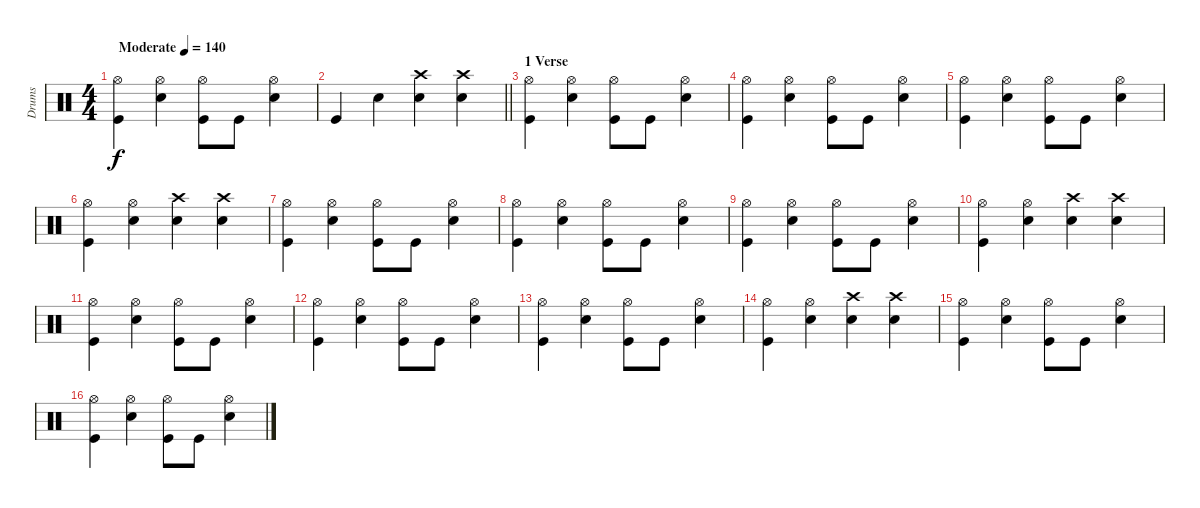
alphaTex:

\track ("Drums" "Drums") {instrument percussion}
\staff
\articulation defaults
\ts (4 4)
\tempo (140 "Moderate")
\clef neutral
\ks c
("Kick (hit)" "Hi-Hat (open)").4{dy f} ("Snare (hit) 2" "Hi-Hat (open)").4 ("Kick (hit)" "Hi-Hat (open)").8 "Kick (hit)".8 ("Snare (hit) 2" "Hi-Hat (open)").4 |
\barLineRight lightlight "Kick (hit)".4 "Snare (hit) 2".4
("Snare (hit) 2" "Crash high (hit)").4 ("Snare (hit) 2" "Crash high (hit)").4 |
\section ("" "1 Verse")
("Kick (hit)" "Hi-Hat (open)").4 ("Snare (hit) 2" "Hi-Hat (open)").4 ("Kick (hit)" "Hi-Hat (open)").8 "Kick (hit)".8 ("Snare (hit) 2" "Hi-Hat (open)").4 |
("Kick (hit)" "Hi-Hat (open)").4 ("Snare (hit) 2" "Hi-Hat (open)").4 ("Kick (hit)" "Hi-Hat (open)").8 "Kick (hit)".8 ("Snare (hit) 2" "Hi-Hat (open)").4 |
("Kick (hit)" "Hi-Hat (open)").4 ("Snare (hit) 2" "Hi-Hat (open)").4 ("Kick (hit)" "Hi-Hat (open)").8 "Kick (hit)".8 ("Snare (hit) 2" "Hi-Hat (open)").4 |
("Kick (hit)" "Hi-Hat (open)").4 ("Snare (hit) 2" "Hi-Hat (open)").4 ("Snare (hit) 2" "Crash high (hit)").4 ("Snare (hit) 2" "Crash high (hit)").4 |
("Kick (hit)" "Hi-Hat (open)").4 ("Snare (hit) 2" "Hi-Hat (open)").4 ("Kick (hit)" "Hi-Hat (open)").8 "Kick (hit)".8 ("Snare (hit) 2" "Hi-Hat (open)").4 |
("Kick (hit)" "Hi-Hat (open)").4 ("Snare (hit) 2" "Hi-Hat (open)").4 ("Kick (hit)" "Hi-Hat (open)").8 "Kick (hit)".8 ("Snare (hit) 2" "Hi-Hat (open)").4 |
("Kick (hit)" "Hi-Hat (open)").4 ("Snare (hit) 2" "Hi-Hat (open)").4 ("Kick (hit)" "Hi-Hat (open)").8 "Kick (hit)".8 ("Snare (hit) 2" "Hi-Hat (open)").4 |
("Kick (hit)" "Hi-Hat (open)").4 ("Snare (hit) 2" "Hi-Hat (open)").4 ("Snare (hit) 2" "Crash high (hit)").4 ("Snare (hit) 2" "Crash high (hit)").4 |
("Kick (hit)" "Hi-Hat (open)").4 ("Snare (hit) 2" "Hi-Hat (open)").4 ("Kick (hit)" "Hi-Hat (open)").8 "Kick (hit)".8 ("Snare (hit) 2" "Hi-Hat (open)").4 |
("Kick (hit)" "Hi-Hat (open)").4 ("Snare (hit) 2" "Hi-Hat (open)").4 ("Kick (hit)" "Hi-Hat (open)").8 "Kick (hit)".8 ("Snare (hit) 2" "Hi-Hat (open)").4 |
("Kick (hit)" "Hi-Hat (open)").4 ("Snare (hit) 2" "Hi-Hat (open)").4 ("Kick (hit)" "Hi-Hat (open)").8 "Kick (hit)".8 ("Snare (hit) 2" "Hi-Hat (open)").4 |
("Kick (hit)" "Hi-Hat (open)").4 ("Snare (hit) 2" "Hi-Hat (open)").4 ("Snare (hit) 2" "Crash high (hit)").4 ("Snare (hit) 2" "Crash high (hit)").4 |
("Kick (hit)" "Hi-Hat (open)").4 ("Snare (hit) 2" "Hi-Hat (open)").4 ("Kick (hit)" "Hi-Hat (open)").8 "Kick (hit)".8 ("Snare (hit) 2" "Hi-Hat (open)").4 |
("Kick (hit)" "Hi-Hat (open)").4 ("Snare (hit) 2" "Hi-Hat (open)").4 ("Kick (hit)" "Hi-Hat (open)").8 "Kick (hit)".8 ("Snare (hit) 2" "Hi-Hat (open)").4
